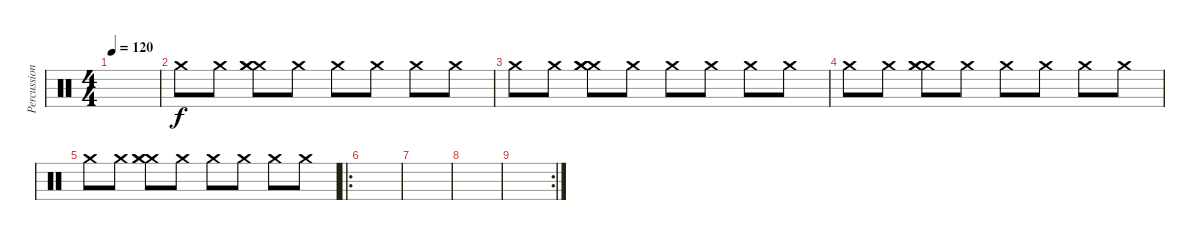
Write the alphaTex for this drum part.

\track ("Percussion" "Percussion") {instrument percussion}
\staff {score}
\articulation defaults
\ts (4 4)
\tempo 120
\clef neutral
\ks c
|
"Crash medium (hit)".8{volume 10} "Crash medium (hit)".8 ("Crash medium (hit)" "Crash medium (hit)" "Crash medium (hit)").8 "Crash medium (hit)".8 "Crash medium (hit)".8 "Crash medium (hit)".8 "Crash medium (hit)".8 "Crash medium (hit)".8 |
"Crash medium (hit)".8 "Crash medium (hit)".8 ("Crash medium (hit)" "Crash medium (hit)" "Crash medium (hit)").8 "Crash medium (hit)".8 "Crash medium (hit)".8 "Crash medium (hit)".8 "Crash medium (hit)".8 "Crash medium (hit)".8 |
"Crash medium (hit)".8 "Crash medium (hit)".8 ("Crash medium (hit)" "Crash medium (hit)" "Crash medium (hit)").8 "Crash medium (hit)".8 "Crash medium (hit)".8 "Crash medium (hit)".8 "Crash medium (hit)".8 "Crash medium (hit)".8 |
"Crash medium (hit)".8 "Crash medium (hit)".8 ("Crash medium (hit)" "Crash medium (hit)" "Crash medium (hit)").8 "Crash medium (hit)".8 "Crash medium (hit)".8 "Crash medium (hit)".8 "Crash medium (hit)".8 "Crash medium (hit)".8 |
\ro
|
|
|
\rc 2
